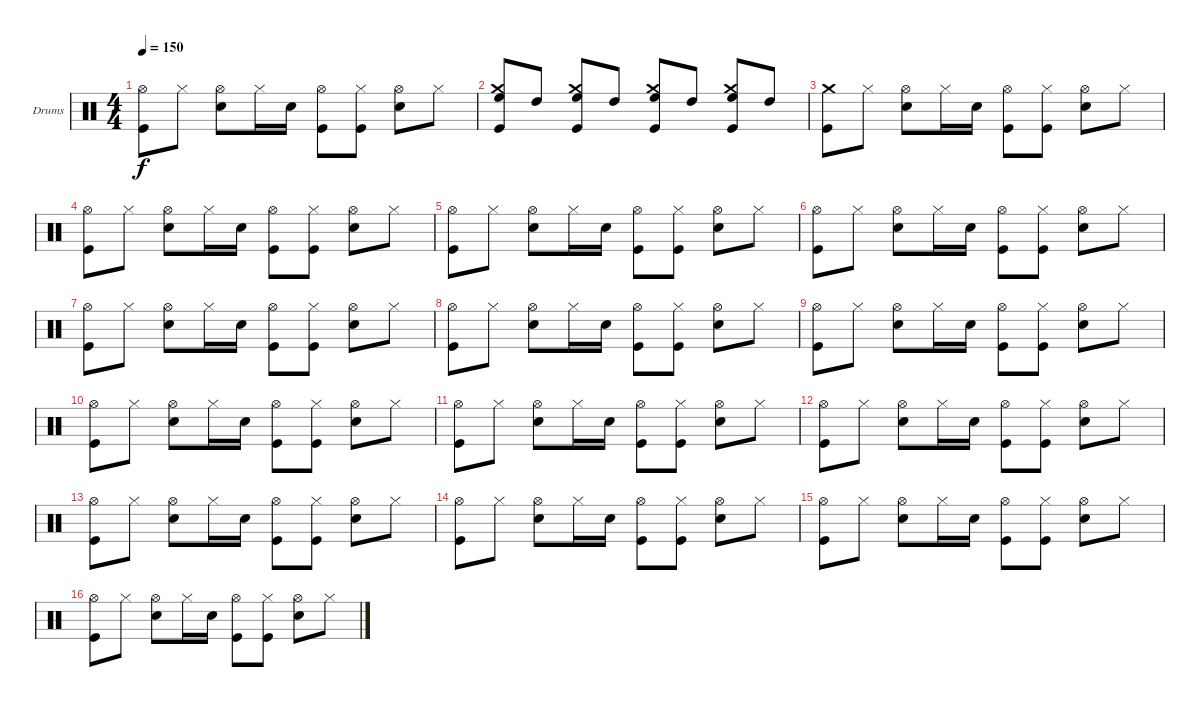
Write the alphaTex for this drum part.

\bracketExtendMode groupsimilarinstruments
\firstSystemTrackNameOrientation horizontal
\otherSystemsTrackNameOrientation horizontal
\track ("Drumkit" "Drums") {instrument percussion}
\staff {score}
\articulation defaults
\ts (4 4)
\tempo 150
\clef neutral
\ks c
("Hi-Hat (open)" "Kick (hit)").8{dy f} "Hi-Hat (closed)".8 ("Hi-Hat (open)" "Snare (hit) 2").8 "Hi-Hat (closed)".16 "Snare (hit) 2".16 ("Hi-Hat (open)" "Kick (hit)").8 ("Hi-Hat (closed)" "Kick (hit)").8 ("Hi-Hat (open)" "Snare (hit) 2").8 "Hi-Hat (closed)".8 |
("Crash medium (hit)" "Kick (hit)" "High Floor Tom (hit)").8 "High Tom (hit)".8 ("Crash medium (hit)" "Kick (hit)" "High Floor Tom (hit)").8 "High Tom (hit)".8 ("Crash medium (hit)" "Kick (hit)" "High Floor Tom (hit)").8 "High Tom (hit)".8 ("Crash medium (hit)" "Kick (hit)" "High Floor Tom (hit)").8 "High Tom (hit)".8 |
("Crash medium (hit)" "Kick (hit)").8 "Hi-Hat (closed)".8 ("Hi-Hat (open)" "Snare (hit) 2").8 "Hi-Hat (closed)".16 "Snare (hit) 2".16 ("Hi-Hat (open)" "Kick (hit)").8 ("Hi-Hat (closed)" "Kick (hit)").8 ("Hi-Hat (open)" "Snare (hit) 2").8 "Hi-Hat (closed)".8 |
("Hi-Hat (open)" "Kick (hit)").8 "Hi-Hat (closed)".8 ("Hi-Hat (open)" "Snare (hit) 2").8 "Hi-Hat (closed)".16 "Snare (hit) 2".16 ("Hi-Hat (open)" "Kick (hit)").8 ("Hi-Hat (closed)" "Kick (hit)").8 ("Hi-Hat (open)" "Snare (hit) 2").8 "Hi-Hat (closed)".8 |
("Hi-Hat (open)" "Kick (hit)").8 "Hi-Hat (closed)".8 ("Hi-Hat (open)" "Snare (hit) 2").8 "Hi-Hat (closed)".16 "Snare (hit) 2".16 ("Hi-Hat (open)" "Kick (hit)").8 ("Hi-Hat (closed)" "Kick (hit)").8 ("Hi-Hat (open)" "Snare (hit) 2").8 "Hi-Hat (closed)".8 |
("Hi-Hat (open)" "Kick (hit)").8 "Hi-Hat (closed)".8 ("Hi-Hat (open)" "Snare (hit) 2").8 "Hi-Hat (closed)".16 "Snare (hit) 2".16 ("Hi-Hat (open)" "Kick (hit)").8 ("Hi-Hat (closed)" "Kick (hit)").8 ("Hi-Hat (open)" "Snare (hit) 2").8 "Hi-Hat (closed)".8 |
("Hi-Hat (open)" "Kick (hit)").8 "Hi-Hat (closed)".8 ("Hi-Hat (open)" "Snare (hit) 2").8 "Hi-Hat (closed)".16 "Snare (hit) 2".16 ("Hi-Hat (open)" "Kick (hit)").8 ("Hi-Hat (closed)" "Kick (hit)").8 ("Hi-Hat (open)" "Snare (hit) 2").8 "Hi-Hat (closed)".8 |
("Hi-Hat (open)" "Kick (hit)").8 "Hi-Hat (closed)".8 ("Hi-Hat (open)" "Snare (hit) 2").8 "Hi-Hat (closed)".16 "Snare (hit) 2".16 ("Hi-Hat (open)" "Kick (hit)").8 ("Hi-Hat (closed)" "Kick (hit)").8 ("Hi-Hat (open)" "Snare (hit) 2").8 "Hi-Hat (closed)".8 |
("Hi-Hat (open)" "Kick (hit)").8 "Hi-Hat (closed)".8 ("Hi-Hat (open)" "Snare (hit) 2").8 "Hi-Hat (closed)".16 "Snare (hit) 2".16 ("Hi-Hat (open)" "Kick (hit)").8 ("Hi-Hat (closed)" "Kick (hit)").8 ("Hi-Hat (open)" "Snare (hit) 2").8 "Hi-Hat (closed)".8 |
("Hi-Hat (open)" "Kick (hit)").8 "Hi-Hat (closed)".8 ("Hi-Hat (open)" "Snare (hit) 2").8 "Hi-Hat (closed)".16 "Snare (hit) 2".16 ("Hi-Hat (open)" "Kick (hit)").8 ("Hi-Hat (closed)" "Kick (hit)").8 ("Hi-Hat (open)" "Snare (hit) 2").8 "Hi-Hat (closed)".8 |
("Hi-Hat (open)" "Kick (hit)").8 "Hi-Hat (closed)".8 ("Hi-Hat (open)" "Snare (hit) 2").8 "Hi-Hat (closed)".16 "Snare (hit) 2".16 ("Hi-Hat (open)" "Kick (hit)").8 ("Hi-Hat (closed)" "Kick (hit)").8 ("Hi-Hat (open)" "Snare (hit) 2").8 "Hi-Hat (closed)".8 |
("Hi-Hat (open)" "Kick (hit)").8 "Hi-Hat (closed)".8 ("Hi-Hat (open)" "Snare (hit) 2").8 "Hi-Hat (closed)".16 "Snare (hit) 2".16 ("Hi-Hat (open)" "Kick (hit)").8 ("Hi-Hat (closed)" "Kick (hit)").8 ("Hi-Hat (open)" "Snare (hit) 2").8 "Hi-Hat (closed)".8 |
("Hi-Hat (open)" "Kick (hit)").8 "Hi-Hat (closed)".8 ("Hi-Hat (open)" "Snare (hit) 2").8 "Hi-Hat (closed)".16 "Snare (hit) 2".16 ("Hi-Hat (open)" "Kick (hit)").8 ("Hi-Hat (closed)" "Kick (hit)").8 ("Hi-Hat (open)" "Snare (hit) 2").8 "Hi-Hat (closed)".8 |
("Hi-Hat (open)" "Kick (hit)").8 "Hi-Hat (closed)".8 ("Hi-Hat (open)" "Snare (hit) 2").8 "Hi-Hat (closed)".16 "Snare (hit) 2".16 ("Hi-Hat (open)" "Kick (hit)").8 ("Hi-Hat (closed)" "Kick (hit)").8 ("Hi-Hat (open)" "Snare (hit) 2").8 "Hi-Hat (closed)".8 |
("Hi-Hat (open)" "Kick (hit)").8 "Hi-Hat (closed)".8 ("Hi-Hat (open)" "Snare (hit) 2").8 "Hi-Hat (closed)".16 "Snare (hit) 2".16 ("Hi-Hat (open)" "Kick (hit)").8 ("Hi-Hat (closed)" "Kick (hit)").8 ("Hi-Hat (open)" "Snare (hit) 2").8 "Hi-Hat (closed)".8 |
("Hi-Hat (open)" "Kick (hit)").8 "Hi-Hat (closed)".8 ("Hi-Hat (open)" "Snare (hit) 2").8 "Hi-Hat (closed)".16 "Snare (hit) 2".16 ("Hi-Hat (open)" "Kick (hit)").8 ("Hi-Hat (closed)" "Kick (hit)").8 ("Hi-Hat (open)" "Snare (hit) 2").8 "Hi-Hat (closed)".8
